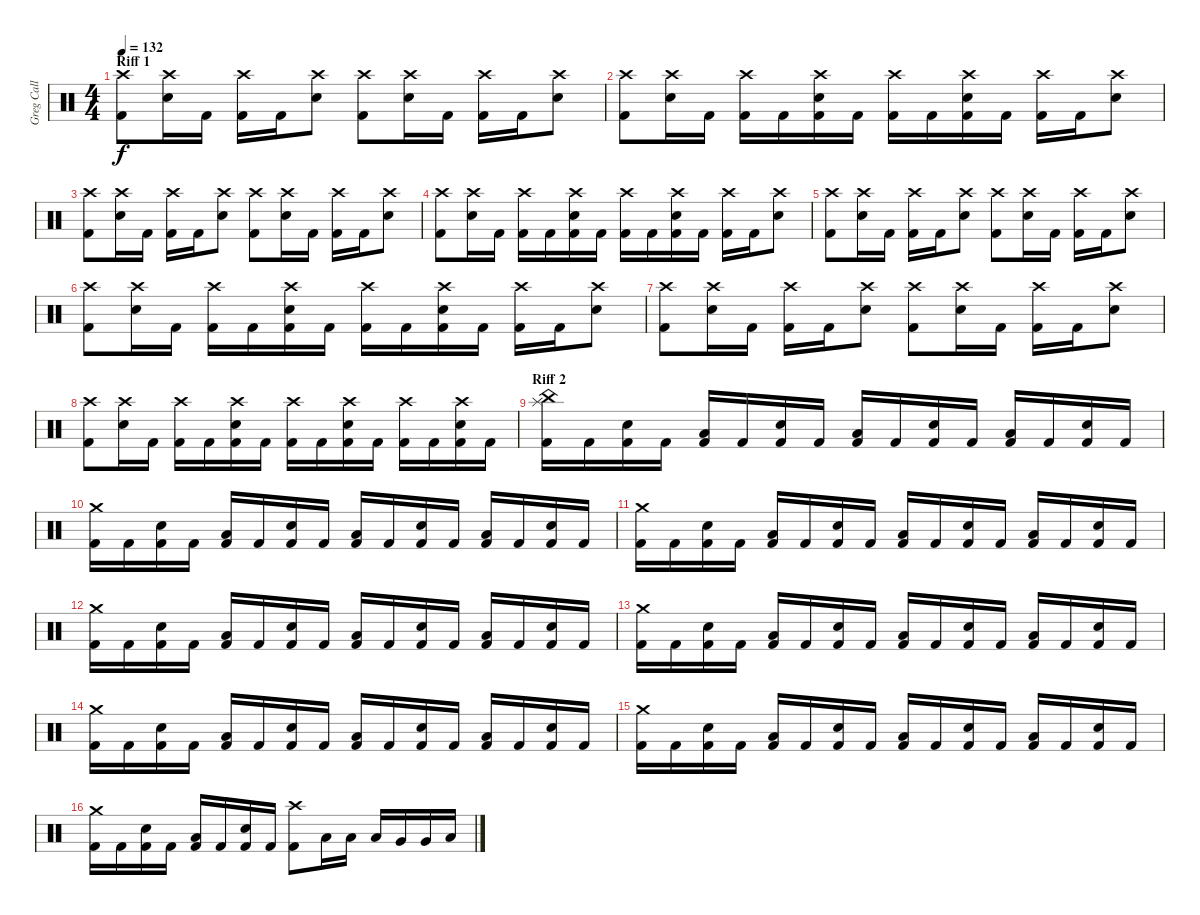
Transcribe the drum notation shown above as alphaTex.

\track ("Greg Call >>Drums" "Greg Call ") {instrument percussion}
\staff {score}
\articulation defaults
\ts (4 4)
\section ("" "Riff 1")
\tempo 132
\clef neutral
\ks c
("Crash high (hit)" "Kick (hit) 2").8{dy f} ("Crash high (hit)" "Snare (hit) 2").16 "Kick (hit) 2".16 ("Crash high (hit)" "Kick (hit) 2").16 "Kick (hit) 2".16 ("Crash high (hit)" "Snare (hit) 2").8 ("Crash high (hit)" "Kick (hit) 2").8 ("Crash high (hit)" "Snare (hit) 2").16 "Kick (hit) 2".16 ("Crash high (hit)" "Kick (hit) 2").16 "Kick (hit) 2".16 ("Crash high (hit)" "Snare (hit) 2").8 |
("Crash high (hit)" "Kick (hit) 2").8 ("Crash high (hit)" "Snare (hit) 2").16 "Kick (hit) 2".16 ("Crash high (hit)" "Kick (hit) 2").16 "Kick (hit) 2".16 ("Crash high (hit)" "Snare (hit) 2" "Kick (hit) 2").16 "Kick (hit) 2".16 ("Crash high (hit)" "Kick (hit) 2").16 "Kick (hit) 2".16 ("Crash high (hit)" "Snare (hit) 2" "Kick (hit) 2").16 "Kick (hit) 2".16 ("Crash high (hit)" "Kick (hit) 2").16 "Kick (hit) 2".16 ("Crash high (hit)" "Snare (hit) 2").8 |
("Crash high (hit)" "Kick (hit) 2").8 ("Crash high (hit)" "Snare (hit) 2").16 "Kick (hit) 2".16 ("Crash high (hit)" "Kick (hit) 2").16 "Kick (hit) 2".16 ("Crash high (hit)" "Snare (hit) 2").8 ("Crash high (hit)" "Kick (hit) 2").8 ("Crash high (hit)" "Snare (hit) 2").16 "Kick (hit) 2".16 ("Crash high (hit)" "Kick (hit) 2").16 "Kick (hit) 2".16 ("Crash high (hit)" "Snare (hit) 2").8 |
("Crash high (hit)" "Kick (hit) 2").8 ("Crash high (hit)" "Snare (hit) 2").16 "Kick (hit) 2".16 ("Crash high (hit)" "Kick (hit) 2").16 "Kick (hit) 2".16 ("Crash high (hit)" "Snare (hit) 2" "Kick (hit) 2").16 "Kick (hit) 2".16 ("Crash high (hit)" "Kick (hit) 2").16 "Kick (hit) 2".16 ("Crash high (hit)" "Snare (hit) 2" "Kick (hit) 2").16 "Kick (hit) 2".16 ("Crash high (hit)" "Kick (hit) 2").16 "Kick (hit) 2".16 ("Crash high (hit)" "Snare (hit) 2").8 |
("Crash high (hit)" "Kick (hit) 2").8 ("Crash high (hit)" "Snare (hit) 2").16 "Kick (hit) 2".16 ("Crash high (hit)" "Kick (hit) 2").16 "Kick (hit) 2".16 ("Crash high (hit)" "Snare (hit) 2").8 ("Crash high (hit)" "Kick (hit) 2").8 ("Crash high (hit)" "Snare (hit) 2").16 "Kick (hit) 2".16 ("Crash high (hit)" "Kick (hit) 2").16 "Kick (hit) 2".16 ("Crash high (hit)" "Snare (hit) 2").8 |
("Crash high (hit)" "Kick (hit) 2").8 ("Crash high (hit)" "Snare (hit) 2").16 "Kick (hit) 2".16 ("Crash high (hit)" "Kick (hit) 2").16 "Kick (hit) 2".16 ("Crash high (hit)" "Snare (hit) 2" "Kick (hit) 2").16 "Kick (hit) 2".16 ("Crash high (hit)" "Kick (hit) 2").16 "Kick (hit) 2".16 ("Crash high (hit)" "Snare (hit) 2" "Kick (hit) 2").16 "Kick (hit) 2".16 ("Crash high (hit)" "Kick (hit) 2").16 "Kick (hit) 2".16 ("Crash high (hit)" "Snare (hit) 2").8 |
("Crash high (hit)" "Kick (hit) 2").8 ("Crash high (hit)" "Snare (hit) 2").16 "Kick (hit) 2".16 ("Crash high (hit)" "Kick (hit) 2").16 "Kick (hit) 2".16 ("Crash high (hit)" "Snare (hit) 2").8 ("Crash high (hit)" "Kick (hit) 2").8 ("Crash high (hit)" "Snare (hit) 2").16 "Kick (hit) 2".16 ("Crash high (hit)" "Kick (hit) 2").16 "Kick (hit) 2".16 ("Crash high (hit)" "Snare (hit) 2").8 |
("Crash high (hit)" "Kick (hit) 2").8 ("Crash high (hit)" "Snare (hit) 2").16 "Kick (hit) 2".16 ("Crash high (hit)" "Kick (hit) 2").16 "Kick (hit) 2".16 ("Crash high (hit)" "Snare (hit) 2" "Kick (hit) 2").16 "Kick (hit) 2".16 ("Crash high (hit)" "Kick (hit) 2").16 "Kick (hit) 2".16 ("Crash high (hit)" "Snare (hit) 2" "Kick (hit) 2").16 "Kick (hit) 2".16 ("Crash high (hit)" "Kick (hit) 2").16 "Kick (hit) 2".16 ("Crash high (hit)" "Snare (hit) 2" "Kick (hit) 2").16 "Kick (hit) 2".16 |
\section ("" "Riff 2")
("Splash (hit)" "China (hit)" "Kick (hit) 2").16 "Kick (hit) 2".16 ("Snare (hit) 2" "Kick (hit) 2").16 "Kick (hit) 2".16 ("Low Floor Tom (hit)" "Kick (hit) 2").16 "Kick (hit) 2".16 ("Snare (hit) 2" "Kick (hit) 2").16 "Kick (hit) 2".16 ("Low Floor Tom (hit)" "Kick (hit) 2").16 "Kick (hit) 2".16 ("Snare (hit) 2" "Kick (hit) 2").16 "Kick (hit) 2".16 ("Low Floor Tom (hit)" "Kick (hit) 2").16 "Kick (hit) 2".16 ("Snare (hit) 2" "Kick (hit) 2").16 "Kick (hit) 2".16 |
("Crash medium (hit)" "Kick (hit) 2").16 "Kick (hit) 2".16 ("Snare (hit) 2" "Kick (hit) 2").16 "Kick (hit) 2".16 ("Low Floor Tom (hit)" "Kick (hit) 2").16 "Kick (hit) 2".16 ("Snare (hit) 2" "Kick (hit) 2").16 "Kick (hit) 2".16 ("Low Floor Tom (hit)" "Kick (hit) 2").16 "Kick (hit) 2".16 ("Snare (hit) 2" "Kick (hit) 2").16 "Kick (hit) 2".16 ("Low Floor Tom (hit)" "Kick (hit) 2").16 "Kick (hit) 2".16 ("Snare (hit) 2" "Kick (hit) 2").16 "Kick (hit) 2".16 |
("Crash medium (hit)" "Kick (hit) 2").16 "Kick (hit) 2".16 ("Snare (hit) 2" "Kick (hit) 2").16 "Kick (hit) 2".16 ("Low Floor Tom (hit)" "Kick (hit) 2").16 "Kick (hit) 2".16 ("Snare (hit) 2" "Kick (hit) 2").16 "Kick (hit) 2".16 ("Low Floor Tom (hit)" "Kick (hit) 2").16 "Kick (hit) 2".16 ("Snare (hit) 2" "Kick (hit) 2").16 "Kick (hit) 2".16 ("Low Floor Tom (hit)" "Kick (hit) 2").16 "Kick (hit) 2".16 ("Snare (hit) 2" "Kick (hit) 2").16 "Kick (hit) 2".16 |
("Crash medium (hit)" "Kick (hit) 2").16 "Kick (hit) 2".16 ("Snare (hit) 2" "Kick (hit) 2").16 "Kick (hit) 2".16 ("Low Floor Tom (hit)" "Kick (hit) 2").16 "Kick (hit) 2".16 ("Snare (hit) 2" "Kick (hit) 2").16 "Kick (hit) 2".16 ("Low Floor Tom (hit)" "Kick (hit) 2").16 "Kick (hit) 2".16 ("Snare (hit) 2" "Kick (hit) 2").16 "Kick (hit) 2".16 ("Low Floor Tom (hit)" "Kick (hit) 2").16 "Kick (hit) 2".16 ("Snare (hit) 2" "Kick (hit) 2").16 "Kick (hit) 2".16 |
("Crash medium (hit)" "Kick (hit) 2").16 "Kick (hit) 2".16 ("Snare (hit) 2" "Kick (hit) 2").16 "Kick (hit) 2".16 ("Low Floor Tom (hit)" "Kick (hit) 2").16 "Kick (hit) 2".16 ("Snare (hit) 2" "Kick (hit) 2").16 "Kick (hit) 2".16 ("Low Floor Tom (hit)" "Kick (hit) 2").16 "Kick (hit) 2".16 ("Snare (hit) 2" "Kick (hit) 2").16 "Kick (hit) 2".16 ("Low Floor Tom (hit)" "Kick (hit) 2").16 "Kick (hit) 2".16 ("Snare (hit) 2" "Kick (hit) 2").16 "Kick (hit) 2".16 |
("Crash medium (hit)" "Kick (hit) 2").16 "Kick (hit) 2".16 ("Snare (hit) 2" "Kick (hit) 2").16 "Kick (hit) 2".16 ("Low Floor Tom (hit)" "Kick (hit) 2").16 "Kick (hit) 2".16 ("Snare (hit) 2" "Kick (hit) 2").16 "Kick (hit) 2".16 ("Low Floor Tom (hit)" "Kick (hit) 2").16 "Kick (hit) 2".16 ("Snare (hit) 2" "Kick (hit) 2").16 "Kick (hit) 2".16 ("Low Floor Tom (hit)" "Kick (hit) 2").16 "Kick (hit) 2".16 ("Snare (hit) 2" "Kick (hit) 2").16 "Kick (hit) 2".16 |
("Crash medium (hit)" "Kick (hit) 2").16 "Kick (hit) 2".16 ("Snare (hit) 2" "Kick (hit) 2").16 "Kick (hit) 2".16 ("Low Floor Tom (hit)" "Kick (hit) 2").16 "Kick (hit) 2".16 ("Snare (hit) 2" "Kick (hit) 2").16 "Kick (hit) 2".16 ("Low Floor Tom (hit)" "Kick (hit) 2").16 "Kick (hit) 2".16 ("Snare (hit) 2" "Kick (hit) 2").16 "Kick (hit) 2".16 ("Low Floor Tom (hit)" "Kick (hit) 2").16 "Kick (hit) 2".16 ("Snare (hit) 2" "Kick (hit) 2").16 "Kick (hit) 2".16 |
("Crash medium (hit)" "Kick (hit) 2").16 "Kick (hit) 2".16 ("Snare (hit) 2" "Kick (hit) 2").16 "Kick (hit) 2".16 ("Low Floor Tom (hit)" "Kick (hit) 2").16 "Kick (hit) 2".16 ("Snare (hit) 2" "Kick (hit) 2").16 "Kick (hit) 2".16 ("Crash high (hit)" "Kick (hit) 2").8 "Low Tom (hit)".16 "Low Tom (hit)".16 "Low Tom (hit)".16 "Very Low Tom (hit)".16 "Very Low Tom (hit)".16 "Low Floor Tom (hit)".16
